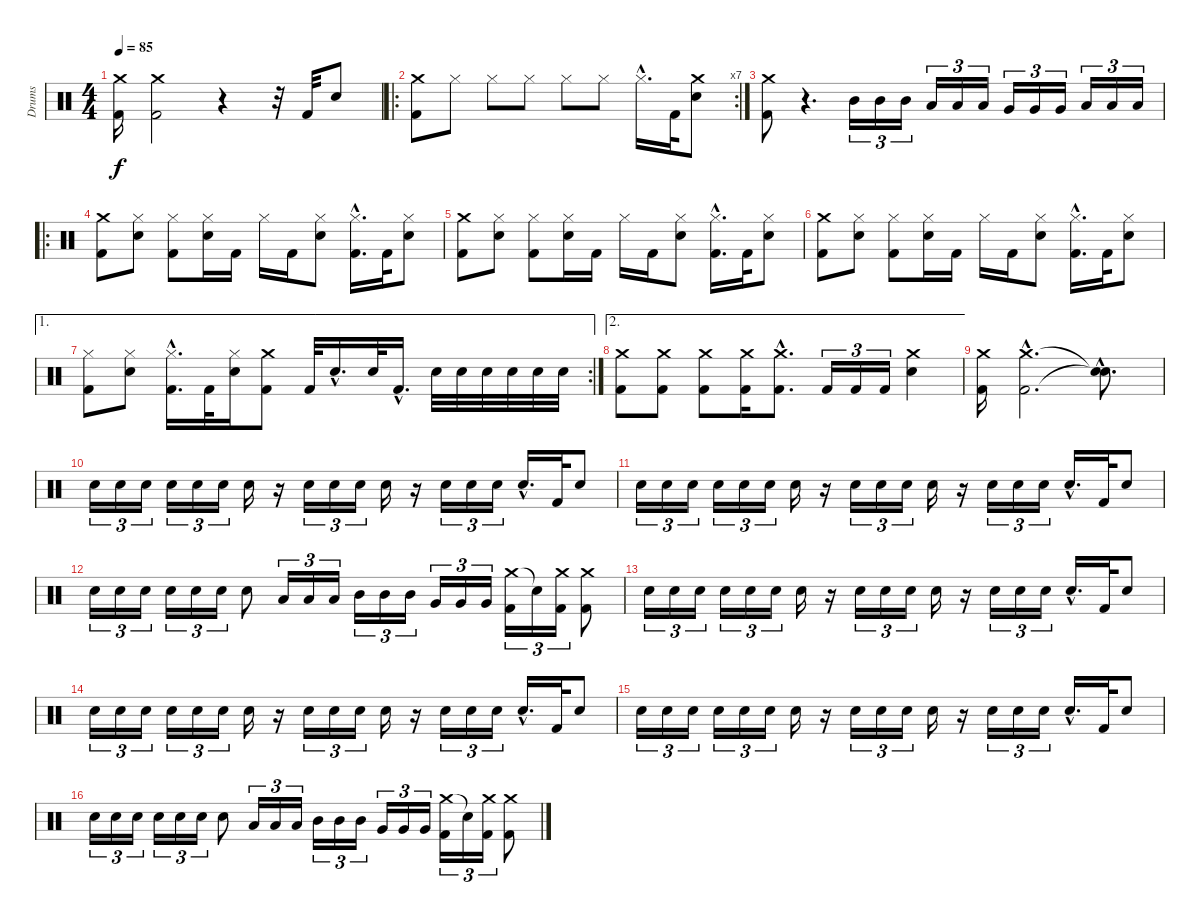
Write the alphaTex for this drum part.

\track ("Drums" "Drums") {instrument percussion}
\staff {score}
\articulation defaults
\ts (4 4)
\tempo 85
\clef neutral
\ks c
("Crash medium (hit)" "Kick (hit) 2").16{dy f} ("Crash medium (hit)" "Kick (hit) 2").2 r.4 r.32 "Kick (hit) 2".32 "Snare (hit) 2".8 |
\ro
\rc 7
("Crash medium (hit)" "Kick (hit) 2").8 "Hi-Hat (closed)".8 "Hi-Hat (closed)".8 "Hi-Hat (closed)".8 "Hi-Hat (closed)".8 "Hi-Hat (closed)".8 "Hi-Hat (closed)"{hac}.16{d} "Kick (hit) 2".32 ("Crash medium (hit)" "Snare (hit) 2").8 |
("Crash medium (hit)" "Kick (hit) 2").8 r.4{d} "Mid Tom (hit)".16{tu (3 2)} "Mid Tom (hit)".16{tu (3 2)} "Mid Tom (hit)".16{tu (3 2)} "Low Tom (hit)".16{tu (3 2)} "Low Tom (hit)".16{tu (3 2)} "Low Tom (hit)".16{tu (3 2)} "Very Low Tom (hit)".16{tu (3 2)} "Very Low Tom (hit)".16{tu (3 2)} "Very Low Tom (hit)".16{tu (3 2)} "Low Floor Tom (hit)".16{tu (3 2)} "Low Floor Tom (hit)".16{tu (3 2)} "Low Floor Tom (hit)".16{tu (3 2)} |
\ro
("Crash medium (hit)" "Kick (hit) 2").8 ("Hi-Hat (closed)" "Snare (hit) 2").8 ("Hi-Hat (closed)" "Kick (hit) 2").8 ("Hi-Hat (closed)" "Snare (hit) 2").16 "Kick (hit) 2".16 "Hi-Hat (closed)".16 "Kick (hit) 2".16 ("Hi-Hat (closed)" "Snare (hit) 2").8 ("Hi-Hat (closed)"{hac} "Kick (hit) 2"{hac}).16{d} "Kick (hit) 2".32 ("Hi-Hat (closed)" "Snare (hit) 2").8 |
("Crash medium (hit)" "Kick (hit) 2").8 ("Hi-Hat (closed)" "Snare (hit) 2").8 ("Hi-Hat (closed)" "Kick (hit) 2").8 ("Hi-Hat (closed)" "Snare (hit) 2").16 "Kick (hit) 2".16 "Hi-Hat (closed)".16 "Kick (hit) 2".16 ("Hi-Hat (closed)" "Snare (hit) 2").8 ("Hi-Hat (closed)"{hac} "Kick (hit) 2"{hac}).16{d} "Kick (hit) 2".32 ("Hi-Hat (closed)" "Snare (hit) 2").8 |
("Crash medium (hit)" "Kick (hit) 2").8 ("Hi-Hat (closed)" "Snare (hit) 2").8 ("Hi-Hat (closed)" "Kick (hit) 2").8 ("Hi-Hat (closed)" "Snare (hit) 2").16 "Kick (hit) 2".16 "Hi-Hat (closed)".16 "Kick (hit) 2".16 ("Hi-Hat (closed)" "Snare (hit) 2").8 ("Hi-Hat (closed)"{hac} "Kick (hit) 2"{hac}).16{d} "Kick (hit) 2".32 ("Hi-Hat (closed)" "Snare (hit) 2").8 |
\ae 1
\rc 2
("Hi-Hat (closed)" "Kick (hit) 2").8 ("Hi-Hat (closed)" "Snare (hit) 2").8 ("Hi-Hat (closed)"{hac} "Kick (hit) 2"{hac}).16{d} "Kick (hit) 2".32 ("Hi-Hat (closed)" "Snare (hit) 2").16 ("Crash medium (hit)" "Kick (hit) 2").8 "Kick (hit) 2".32 "Snare (hit) 2"{hac}.16{d} "Snare (hit) 2".32 "Kick (hit) 2"{hac}.16{d} "Snare (hit) 2".32 "Snare (hit) 2".32 "Snare (hit) 2".32 "Snare (hit) 2".32 "Snare (hit) 2".32 "Snare (hit) 2".32 |
\ae 2
("Crash medium (hit)" "Kick (hit) 2").8 ("Crash medium (hit)" "Kick (hit) 2").8 ("Crash medium (hit)" "Kick (hit) 2").8 ("Crash medium (hit)" "Kick (hit) 2").16 ("Crash medium (hit)"{hac} "Kick (hit) 2"{hac}).8{d} "Kick (hit) 2".16{tu (3 2)} "Kick (hit) 2".16{tu (3 2)} "Kick (hit) 2".16{tu (3 2)} ("Crash medium (hit)" "Snare (hit) 2").4 |
("Crash medium (hit)" "Kick (hit) 2").16 ("Crash medium (hit)"{hac} "Kick (hit) 2"{hac}).2{d} ("Snare (hit)"{hac t} "Snare (hit)"{hac t}).8{d} |
"Snare (hit) 2".16{tu (3 2)} "Snare (hit) 2".16{tu (3 2)} "Snare (hit) 2".16{tu (3 2)} "Snare (hit) 2".16{tu (3 2)} "Snare (hit) 2".16{tu (3 2)} "Snare (hit) 2".16{tu (3 2)} "Snare (hit) 2".16 r.16 "Snare (hit) 2".16{tu (3 2)} "Snare (hit) 2".16{tu (3 2)} "Snare (hit) 2".16{tu (3 2)} "Snare (hit) 2".16 r.16 "Snare (hit) 2".16{tu (3 2)} "Snare (hit) 2".16{tu (3 2)} "Snare (hit) 2".16{tu (3 2)} "Snare (hit) 2"{hac}.16{d} "Kick (hit) 2".32 "Snare (hit) 2".8 |
"Snare (hit) 2".16{tu (3 2)} "Snare (hit) 2".16{tu (3 2)} "Snare (hit) 2".16{tu (3 2)} "Snare (hit) 2".16{tu (3 2)} "Snare (hit) 2".16{tu (3 2)} "Snare (hit) 2".16{tu (3 2)} "Snare (hit) 2".16 r.16 "Snare (hit) 2".16{tu (3 2)} "Snare (hit) 2".16{tu (3 2)} "Snare (hit) 2".16{tu (3 2)} "Snare (hit) 2".16 r.16 "Snare (hit) 2".16{tu (3 2)} "Snare (hit) 2".16{tu (3 2)} "Snare (hit) 2".16{tu (3 2)} "Snare (hit) 2"{hac}.16{d} "Kick (hit) 2".32 "Snare (hit) 2".8 |
"Snare (hit) 2".16{tu (3 2)} "Snare (hit) 2".16{tu (3 2)} "Snare (hit) 2".16{tu (3 2)} "Snare (hit) 2".16{tu (3 2)} "Snare (hit) 2".16{tu (3 2)} "Snare (hit) 2".16{tu (3 2)} "Snare (hit) 2".8 "Low Tom (hit)".16{tu (3 2)} "Low Tom (hit)".16{tu (3 2)} "Low Tom (hit)".16{tu (3 2)} "Mid Tom (hit)".16{tu (3 2)} "Mid Tom (hit)".16{tu (3 2)} "Mid Tom (hit)".16{tu (3 2)} "Very Low Tom (hit)".16{tu (3 2)} "Very Low Tom (hit)".16{tu (3 2)} "Very Low Tom (hit)".16{tu (3 2)} ("Crash medium (hit)" "Kick (hit) 2").16{tu (3 2)} "Snare (hit)"{t}.16{tu (3 2)} ("Crash medium (hit)" "Kick (hit) 2").16{tu (3 2)} ("Crash medium (hit)" "Kick (hit) 2").8 |
"Snare (hit) 2".16{tu (3 2)} "Snare (hit) 2".16{tu (3 2)} "Snare (hit) 2".16{tu (3 2)} "Snare (hit) 2".16{tu (3 2)} "Snare (hit) 2".16{tu (3 2)} "Snare (hit) 2".16{tu (3 2)} "Snare (hit) 2".16 r.16 "Snare (hit) 2".16{tu (3 2)} "Snare (hit) 2".16{tu (3 2)} "Snare (hit) 2".16{tu (3 2)} "Snare (hit) 2".16 r.16 "Snare (hit) 2".16{tu (3 2)} "Snare (hit) 2".16{tu (3 2)} "Snare (hit) 2".16{tu (3 2)} "Snare (hit) 2"{hac}.16{d} "Kick (hit) 2".32 "Snare (hit) 2".8 |
"Snare (hit) 2".16{tu (3 2)} "Snare (hit) 2".16{tu (3 2)} "Snare (hit) 2".16{tu (3 2)} "Snare (hit) 2".16{tu (3 2)} "Snare (hit) 2".16{tu (3 2)} "Snare (hit) 2".16{tu (3 2)} "Snare (hit) 2".16 r.16 "Snare (hit) 2".16{tu (3 2)} "Snare (hit) 2".16{tu (3 2)} "Snare (hit) 2".16{tu (3 2)} "Snare (hit) 2".16 r.16 "Snare (hit) 2".16{tu (3 2)} "Snare (hit) 2".16{tu (3 2)} "Snare (hit) 2".16{tu (3 2)} "Snare (hit) 2"{hac}.16{d} "Kick (hit) 2".32 "Snare (hit) 2".8 |
"Snare (hit) 2".16{tu (3 2)} "Snare (hit) 2".16{tu (3 2)} "Snare (hit) 2".16{tu (3 2)} "Snare (hit) 2".16{tu (3 2)} "Snare (hit) 2".16{tu (3 2)} "Snare (hit) 2".16{tu (3 2)} "Snare (hit) 2".16 r.16 "Snare (hit) 2".16{tu (3 2)} "Snare (hit) 2".16{tu (3 2)} "Snare (hit) 2".16{tu (3 2)} "Snare (hit) 2".16 r.16 "Snare (hit) 2".16{tu (3 2)} "Snare (hit) 2".16{tu (3 2)} "Snare (hit) 2".16{tu (3 2)} "Snare (hit) 2"{hac}.16{d} "Kick (hit) 2".32 "Snare (hit) 2".8 |
"Snare (hit) 2".16{tu (3 2)} "Snare (hit) 2".16{tu (3 2)} "Snare (hit) 2".16{tu (3 2)} "Snare (hit) 2".16{tu (3 2)} "Snare (hit) 2".16{tu (3 2)} "Snare (hit) 2".16{tu (3 2)} "Snare (hit) 2".8 "Low Tom (hit)".16{tu (3 2)} "Low Tom (hit)".16{tu (3 2)} "Low Tom (hit)".16{tu (3 2)} "Mid Tom (hit)".16{tu (3 2)} "Mid Tom (hit)".16{tu (3 2)} "Mid Tom (hit)".16{tu (3 2)} "Very Low Tom (hit)".16{tu (3 2)} "Very Low Tom (hit)".16{tu (3 2)} "Very Low Tom (hit)".16{tu (3 2)} ("Crash medium (hit)" "Kick (hit) 2").16{tu (3 2)} "Snare (hit)"{t}.16{tu (3 2)} ("Crash medium (hit)" "Kick (hit) 2").16{tu (3 2)} ("Crash medium (hit)" "Kick (hit) 2").8
